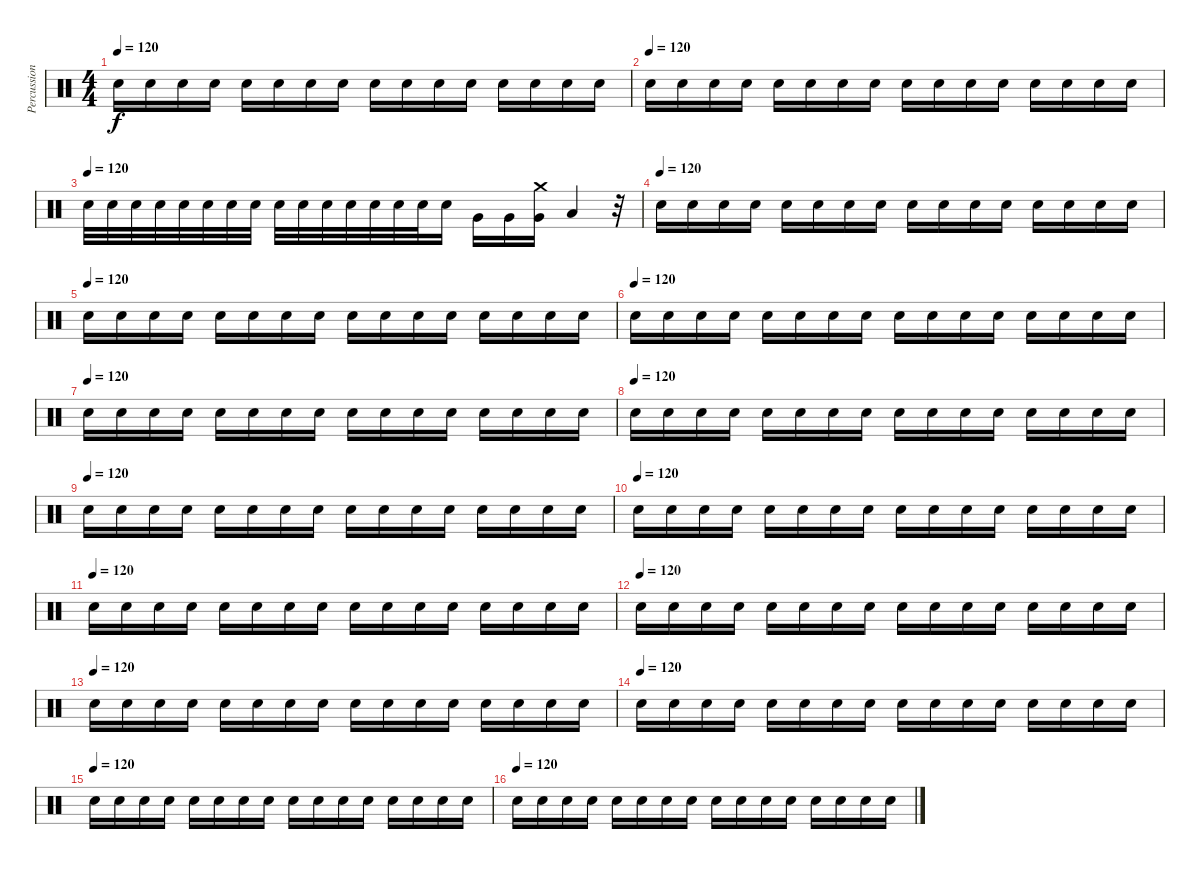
\track ("Percussion" "Percussion") {instrument percussion}
\staff {score}
\articulation defaults
\ts (4 4)
\tempo 120
\clef neutral
\ks c "Snare (hit) 2".16{dy f} "Electric Snare (hit)".16 "Snare (hit) 2".16 "Electric Snare (hit)".16 "Snare (hit) 2".16 "Electric Snare (hit)".16 "Snare (hit) 2".16 "Snare (hit) 2".16 "Electric Snare (hit)".16 "Snare (hit) 2".16 "Electric Snare (hit)".16 "Snare (hit) 2".16 "Electric Snare (hit)".16 "Snare (hit) 2".16 "Electric Snare (hit)".16 "Snare (hit) 2".16
|
\tempo (120)
"Snare (hit) 2".16 "Electric Snare (hit)".16 "Snare (hit) 2".16 "Electric Snare (hit)".16 "Snare (hit) 2".16 "Electric Snare (hit)".16 "Snare (hit) 2".16 "Snare (hit) 2".16 "Electric Snare (hit)".16 "Snare (hit) 2".16 "Electric Snare (hit)".16 "Snare (hit) 2".16 "Electric Snare (hit)".16 "Snare (hit) 2".16 "Electric Snare (hit)".16 "Snare (hit) 2".16 |
\tempo (120)
"Snare (hit) 2".32 "Snare (hit) 2".32 "Snare (hit) 2".32 "Snare (hit) 2".32 "Snare (hit) 2".32 "Snare (hit) 2".32 "Snare (hit) 2".32 "Snare (hit) 2".32 "Snare (hit) 2".32 "Snare (hit) 2".32 "Snare (hit) 2".32 "Snare (hit) 2".32 "Snare (hit) 2".32 "Snare (hit) 2".32 "Electric Snare (hit)".32 "Snare (hit) 2".16 "Very Low Tom (hit)".16 "Very Low Tom (hit)".16 ("Very Low Tom (hit)" "Crash medium (hit)").16 "Low Tom (hit)".4 r.32 |
\tempo (120)
"Snare (hit) 2".16 "Electric Snare (hit)".16 "Snare (hit) 2".16 "Electric Snare (hit)".16 "Snare (hit) 2".16 "Electric Snare (hit)".16 "Snare (hit) 2".16 "Snare (hit) 2".16 "Electric Snare (hit)".16 "Snare (hit) 2".16 "Electric Snare (hit)".16 "Snare (hit) 2".16 "Electric Snare (hit)".16 "Snare (hit) 2".16 "Electric Snare (hit)".16 "Snare (hit) 2".16 |
\tempo (120)
"Snare (hit) 2".16 "Electric Snare (hit)".16 "Snare (hit) 2".16 "Electric Snare (hit)".16 "Snare (hit) 2".16 "Electric Snare (hit)".16 "Snare (hit) 2".16 "Snare (hit) 2".16 "Electric Snare (hit)".16 "Snare (hit) 2".16 "Electric Snare (hit)".16 "Snare (hit) 2".16 "Electric Snare (hit)".16 "Snare (hit) 2".16 "Electric Snare (hit)".16 "Snare (hit) 2".16 |
\tempo (120)
"Snare (hit) 2".16 "Electric Snare (hit)".16 "Snare (hit) 2".16 "Electric Snare (hit)".16 "Snare (hit) 2".16 "Electric Snare (hit)".16 "Snare (hit) 2".16 "Snare (hit) 2".16 "Electric Snare (hit)".16 "Snare (hit) 2".16 "Electric Snare (hit)".16 "Snare (hit) 2".16 "Electric Snare (hit)".16 "Snare (hit) 2".16 "Electric Snare (hit)".16 "Snare (hit) 2".16 |
\tempo (120)
"Snare (hit) 2".16 "Electric Snare (hit)".16 "Snare (hit) 2".16 "Electric Snare (hit)".16 "Snare (hit) 2".16 "Electric Snare (hit)".16 "Snare (hit) 2".16 "Snare (hit) 2".16 "Electric Snare (hit)".16 "Snare (hit) 2".16 "Electric Snare (hit)".16 "Snare (hit) 2".16 "Electric Snare (hit)".16 "Snare (hit) 2".16 "Electric Snare (hit)".16 "Snare (hit) 2".16 |
\tempo (120)
"Snare (hit) 2".16 "Electric Snare (hit)".16 "Snare (hit) 2".16 "Electric Snare (hit)".16 "Snare (hit) 2".16 "Electric Snare (hit)".16 "Snare (hit) 2".16 "Snare (hit) 2".16 "Electric Snare (hit)".16 "Snare (hit) 2".16 "Electric Snare (hit)".16 "Snare (hit) 2".16 "Electric Snare (hit)".16 "Snare (hit) 2".16 "Electric Snare (hit)".16 "Snare (hit) 2".16 |
\tempo (120)
"Snare (hit) 2".16 "Electric Snare (hit)".16 "Snare (hit) 2".16 "Electric Snare (hit)".16 "Snare (hit) 2".16 "Electric Snare (hit)".16 "Snare (hit) 2".16 "Snare (hit) 2".16 "Electric Snare (hit)".16 "Snare (hit) 2".16 "Electric Snare (hit)".16 "Snare (hit) 2".16 "Electric Snare (hit)".16 "Snare (hit) 2".16 "Electric Snare (hit)".16 "Snare (hit) 2".16 |
\tempo (120)
"Snare (hit) 2".16 "Electric Snare (hit)".16 "Snare (hit) 2".16 "Electric Snare (hit)".16 "Snare (hit) 2".16 "Electric Snare (hit)".16 "Snare (hit) 2".16 "Snare (hit) 2".16 "Electric Snare (hit)".16 "Snare (hit) 2".16 "Electric Snare (hit)".16 "Snare (hit) 2".16 "Electric Snare (hit)".16 "Snare (hit) 2".16 "Electric Snare (hit)".16 "Snare (hit) 2".16 |
\tempo (120)
"Snare (hit) 2".16 "Electric Snare (hit)".16 "Snare (hit) 2".16 "Electric Snare (hit)".16 "Snare (hit) 2".16 "Electric Snare (hit)".16 "Snare (hit) 2".16 "Snare (hit) 2".16 "Electric Snare (hit)".16 "Snare (hit) 2".16 "Electric Snare (hit)".16 "Snare (hit) 2".16 "Electric Snare (hit)".16 "Snare (hit) 2".16 "Electric Snare (hit)".16 "Snare (hit) 2".16 |
\tempo (120)
"Snare (hit) 2".16 "Electric Snare (hit)".16 "Snare (hit) 2".16 "Electric Snare (hit)".16 "Snare (hit) 2".16 "Electric Snare (hit)".16 "Snare (hit) 2".16 "Snare (hit) 2".16 "Electric Snare (hit)".16 "Snare (hit) 2".16 "Electric Snare (hit)".16 "Snare (hit) 2".16 "Electric Snare (hit)".16 "Snare (hit) 2".16 "Electric Snare (hit)".16 "Snare (hit) 2".16 |
\tempo (120)
"Snare (hit) 2".16 "Electric Snare (hit)".16 "Snare (hit) 2".16 "Electric Snare (hit)".16 "Snare (hit) 2".16 "Electric Snare (hit)".16 "Snare (hit) 2".16 "Snare (hit) 2".16 "Electric Snare (hit)".16 "Snare (hit) 2".16 "Electric Snare (hit)".16 "Snare (hit) 2".16 "Electric Snare (hit)".16 "Snare (hit) 2".16 "Electric Snare (hit)".16 "Snare (hit) 2".16 |
\tempo (120)
"Snare (hit) 2".16 "Electric Snare (hit)".16 "Snare (hit) 2".16 "Electric Snare (hit)".16 "Snare (hit) 2".16 "Electric Snare (hit)".16 "Snare (hit) 2".16 "Snare (hit) 2".16 "Electric Snare (hit)".16 "Snare (hit) 2".16 "Electric Snare (hit)".16 "Snare (hit) 2".16 "Electric Snare (hit)".16 "Snare (hit) 2".16 "Electric Snare (hit)".16 "Snare (hit) 2".16 |
\tempo (120)
"Snare (hit) 2".16 "Electric Snare (hit)".16 "Snare (hit) 2".16 "Electric Snare (hit)".16 "Snare (hit) 2".16 "Electric Snare (hit)".16 "Snare (hit) 2".16 "Snare (hit) 2".16 "Electric Snare (hit)".16 "Snare (hit) 2".16 "Electric Snare (hit)".16 "Snare (hit) 2".16 "Electric Snare (hit)".16 "Snare (hit) 2".16 "Electric Snare (hit)".16 "Snare (hit) 2".16 |
\tempo (120)
"Snare (hit) 2".16 "Electric Snare (hit)".16 "Snare (hit) 2".16 "Electric Snare (hit)".16 "Snare (hit) 2".16 "Electric Snare (hit)".16 "Snare (hit) 2".16 "Snare (hit) 2".16 "Electric Snare (hit)".16 "Snare (hit) 2".16 "Electric Snare (hit)".16 "Snare (hit) 2".16 "Electric Snare (hit)".16 "Snare (hit) 2".16 "Electric Snare (hit)".16 "Snare (hit) 2".16
